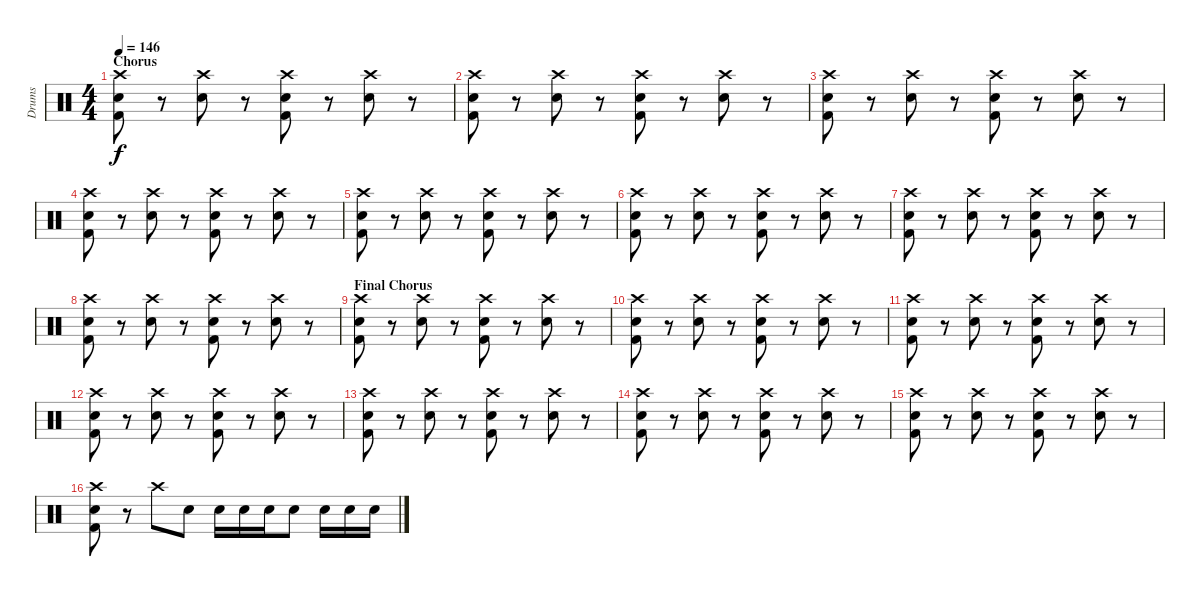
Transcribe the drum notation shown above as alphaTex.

\track ("Drums" "Drums") {instrument percussion}
\staff {score}
\articulation defaults
\ts (4 4)
\section ("" "Chorus")
\tempo 146
\clef neutral
\ks c
("Crash high (hit)" "Snare (hit) 2" "Kick (hit) 2").8{dy f} r.8 ("Crash high (hit)" "Snare (hit) 2").8 r.8 ("Crash high (hit)" "Snare (hit) 2" "Kick (hit) 2").8 r.8 ("Crash high (hit)" "Snare (hit) 2").8 r.8 |
("Crash high (hit)" "Snare (hit) 2" "Kick (hit) 2").8 r.8 ("Crash high (hit)" "Snare (hit) 2").8 r.8 ("Crash high (hit)" "Snare (hit) 2" "Kick (hit) 2").8 r.8 ("Crash high (hit)" "Snare (hit) 2").8 r.8 |
("Crash high (hit)" "Snare (hit) 2" "Kick (hit) 2").8 r.8 ("Crash high (hit)" "Snare (hit) 2").8 r.8 ("Crash high (hit)" "Snare (hit) 2" "Kick (hit) 2").8 r.8 ("Crash high (hit)" "Snare (hit) 2").8 r.8 |
("Crash high (hit)" "Snare (hit) 2" "Kick (hit) 2").8 r.8 ("Crash high (hit)" "Snare (hit) 2").8 r.8 ("Crash high (hit)" "Snare (hit) 2" "Kick (hit) 2").8 r.8 ("Crash high (hit)" "Snare (hit) 2").8 r.8 |
("Crash high (hit)" "Snare (hit) 2" "Kick (hit) 2").8 r.8 ("Crash high (hit)" "Snare (hit) 2").8 r.8 ("Crash high (hit)" "Snare (hit) 2" "Kick (hit) 2").8 r.8 ("Crash high (hit)" "Snare (hit) 2").8 r.8 |
("Crash high (hit)" "Snare (hit) 2" "Kick (hit) 2").8 r.8 ("Crash high (hit)" "Snare (hit) 2").8 r.8 ("Crash high (hit)" "Snare (hit) 2" "Kick (hit) 2").8 r.8 ("Crash high (hit)" "Snare (hit) 2").8 r.8 |
("Crash high (hit)" "Snare (hit) 2" "Kick (hit) 2").8 r.8 ("Crash high (hit)" "Snare (hit) 2").8 r.8 ("Crash high (hit)" "Snare (hit) 2" "Kick (hit) 2").8 r.8 ("Crash high (hit)" "Snare (hit) 2").8 r.8 |
("Crash high (hit)" "Snare (hit) 2" "Kick (hit) 2").8 r.8 ("Crash high (hit)" "Snare (hit) 2").8 r.8 ("Crash high (hit)" "Snare (hit) 2" "Kick (hit) 2").8 r.8 ("Crash high (hit)" "Snare (hit) 2").8 r.8 |
\section ("" "Final Chorus")
("Crash high (hit)" "Snare (hit) 2" "Kick (hit) 2").8 r.8 ("Crash high (hit)" "Snare (hit) 2").8 r.8 ("Crash high (hit)" "Snare (hit) 2" "Kick (hit) 2").8 r.8 ("Crash high (hit)" "Snare (hit) 2").8 r.8 |
("Crash high (hit)" "Snare (hit) 2" "Kick (hit) 2").8 r.8 ("Crash high (hit)" "Snare (hit) 2").8 r.8 ("Crash high (hit)" "Snare (hit) 2" "Kick (hit) 2").8 r.8 ("Crash high (hit)" "Snare (hit) 2").8 r.8 |
("Crash high (hit)" "Snare (hit) 2" "Kick (hit) 2").8 r.8 ("Crash high (hit)" "Snare (hit) 2").8 r.8 ("Crash high (hit)" "Snare (hit) 2" "Kick (hit) 2").8 r.8 ("Crash high (hit)" "Snare (hit) 2").8 r.8 |
("Crash high (hit)" "Snare (hit) 2" "Kick (hit) 2").8 r.8 ("Crash high (hit)" "Snare (hit) 2").8 r.8 ("Crash high (hit)" "Snare (hit) 2" "Kick (hit) 2").8 r.8 ("Crash high (hit)" "Snare (hit) 2").8 r.8 |
("Crash high (hit)" "Snare (hit) 2" "Kick (hit) 2").8 r.8 ("Crash high (hit)" "Snare (hit) 2").8 r.8 ("Crash high (hit)" "Snare (hit) 2" "Kick (hit) 2").8 r.8 ("Crash high (hit)" "Snare (hit) 2").8 r.8 |
("Crash high (hit)" "Snare (hit) 2" "Kick (hit) 2").8 r.8 ("Crash high (hit)" "Snare (hit) 2").8 r.8 ("Crash high (hit)" "Snare (hit) 2" "Kick (hit) 2").8 r.8 ("Crash high (hit)" "Snare (hit) 2").8 r.8 |
("Crash high (hit)" "Snare (hit) 2" "Kick (hit) 2").8 r.8 ("Crash high (hit)" "Snare (hit) 2").8 r.8 ("Crash high (hit)" "Snare (hit) 2" "Kick (hit) 2").8 r.8 ("Crash high (hit)" "Snare (hit) 2").8 r.8 |
("Crash high (hit)" "Snare (hit) 2" "Kick (hit) 2").8 r.8 "Crash high (hit)".8 "Snare (hit) 2".8 "Snare (hit) 2".16 "Snare (hit) 2".16 "Snare (hit) 2".16 "Snare (hit) 2".8 "Snare (hit) 2".16 "Snare (hit) 2".16 "Snare (hit) 2".16
